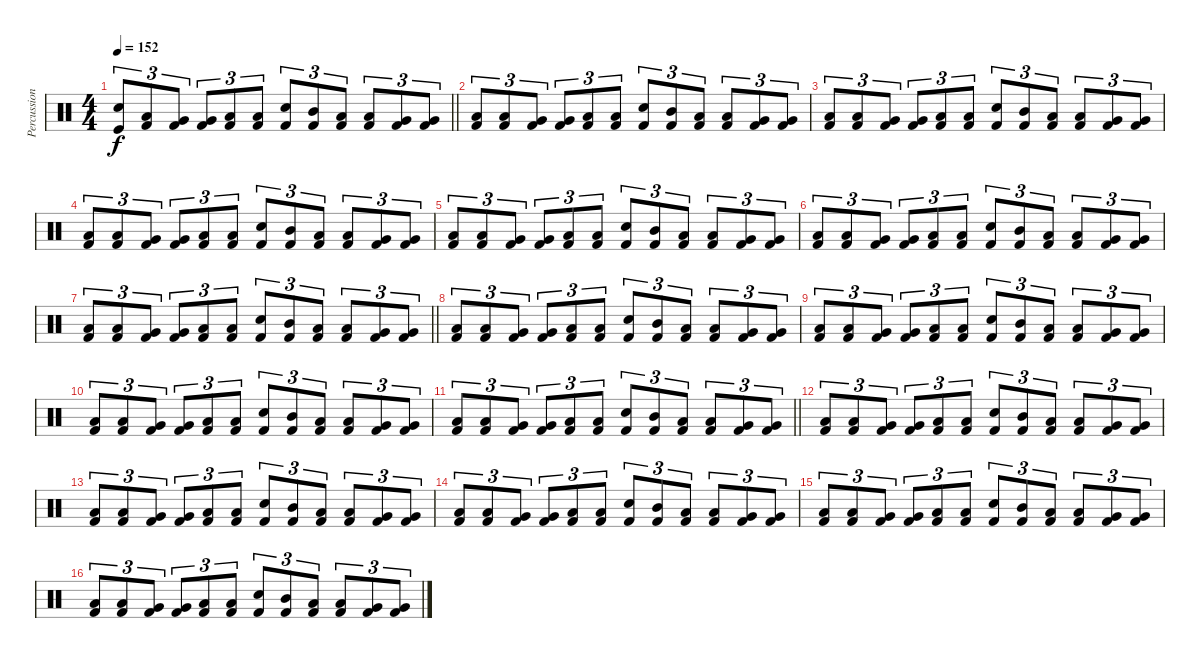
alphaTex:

\track ("Percussion" "Percussion") {instrument percussion}
\staff {score}
\articulation defaults
\ts (4 4)
\tempo 152
\clef neutral
\barLineRight lightlight
\ks c
("Electric Snare (hit)" "Kick (hit)").8{tu (3 2) dy f} ("Kick (hit) 2" "Low Tom (hit)").8{tu (3 2)} ("Kick (hit) 2" "Very Low Tom (hit)").8{tu (3 2)} ("Kick (hit) 2" "Very Low Tom (hit)").8{tu (3 2)} ("Kick (hit) 2" "Low Floor Tom (hit)").8{tu (3 2)} ("Kick (hit) 2" "Low Floor Tom (hit)").8{tu (3 2)} ("Electric Snare (hit)" "Kick (hit) 2").8{tu (3 2)} ("Kick (hit) 2" "Mid Tom (hit)").8{tu (3 2)} ("Kick (hit) 2" "Low Tom (hit)").8{tu (3 2)} ("Kick (hit) 2" "Low Tom (hit)").8{tu (3 2)} ("Kick (hit) 2" "Very Low Tom (hit)").8{tu (3 2)} ("Kick (hit) 2" "Very Low Tom (hit)").8{tu (3 2)} |
\section ("" "")
("Kick (hit) 2" "Low Tom (hit)").8{tu (3 2)} ("Kick (hit) 2" "Low Tom (hit)").8{tu (3 2)} ("Kick (hit) 2" "Very Low Tom (hit)").8{tu (3 2)} ("Kick (hit) 2" "Very Low Tom (hit)").8{tu (3 2)} ("Kick (hit) 2" "Low Floor Tom (hit)").8{tu (3 2)} ("Kick (hit) 2" "Low Floor Tom (hit)").8{tu (3 2)} ("Electric Snare (hit)" "Kick (hit) 2").8{tu (3 2)} ("Kick (hit) 2" "Mid Tom (hit)").8{tu (3 2)} ("Kick (hit) 2" "Low Tom (hit)").8{tu (3 2)} ("Kick (hit) 2" "Low Tom (hit)").8{tu (3 2)} ("Kick (hit) 2" "Very Low Tom (hit)").8{tu (3 2)} ("Kick (hit) 2" "Very Low Tom (hit)").8{tu (3 2)} |
("Kick (hit) 2" "Low Tom (hit)").8{tu (3 2)} ("Kick (hit) 2" "Low Tom (hit)").8{tu (3 2)} ("Kick (hit) 2" "Very Low Tom (hit)").8{tu (3 2)} ("Kick (hit) 2" "Very Low Tom (hit)").8{tu (3 2)} ("Kick (hit) 2" "Low Floor Tom (hit)").8{tu (3 2)} ("Kick (hit) 2" "Low Floor Tom (hit)").8{tu (3 2)} ("Electric Snare (hit)" "Kick (hit) 2").8{tu (3 2)} ("Kick (hit) 2" "Mid Tom (hit)").8{tu (3 2)} ("Kick (hit) 2" "Low Tom (hit)").8{tu (3 2)} ("Kick (hit) 2" "Low Tom (hit)").8{tu (3 2)} ("Kick (hit) 2" "Very Low Tom (hit)").8{tu (3 2)} ("Kick (hit) 2" "Very Low Tom (hit)").8{tu (3 2)} |
("Kick (hit) 2" "Low Tom (hit)").8{tu (3 2)} ("Kick (hit) 2" "Low Tom (hit)").8{tu (3 2)} ("Kick (hit) 2" "Very Low Tom (hit)").8{tu (3 2)} ("Kick (hit) 2" "Very Low Tom (hit)").8{tu (3 2)} ("Kick (hit) 2" "Low Floor Tom (hit)").8{tu (3 2)} ("Kick (hit) 2" "Low Floor Tom (hit)").8{tu (3 2)} ("Electric Snare (hit)" "Kick (hit) 2").8{tu (3 2)} ("Kick (hit) 2" "Mid Tom (hit)").8{tu (3 2)} ("Kick (hit) 2" "Low Tom (hit)").8{tu (3 2)} ("Kick (hit) 2" "Low Tom (hit)").8{tu (3 2)} ("Kick (hit) 2" "Very Low Tom (hit)").8{tu (3 2)} ("Kick (hit) 2" "Very Low Tom (hit)").8{tu (3 2)} |
("Kick (hit) 2" "Low Tom (hit)").8{tu (3 2)} ("Kick (hit) 2" "Low Tom (hit)").8{tu (3 2)} ("Kick (hit) 2" "Very Low Tom (hit)").8{tu (3 2)} ("Kick (hit) 2" "Very Low Tom (hit)").8{tu (3 2)} ("Kick (hit) 2" "Low Floor Tom (hit)").8{tu (3 2)} ("Kick (hit) 2" "Low Floor Tom (hit)").8{tu (3 2)} ("Electric Snare (hit)" "Kick (hit) 2").8{tu (3 2)} ("Kick (hit) 2" "Mid Tom (hit)").8{tu (3 2)} ("Kick (hit) 2" "Low Tom (hit)").8{tu (3 2)} ("Kick (hit) 2" "Low Tom (hit)").8{tu (3 2)} ("Kick (hit) 2" "Very Low Tom (hit)").8{tu (3 2)} ("Kick (hit) 2" "Very Low Tom (hit)").8{tu (3 2)} |
("Kick (hit) 2" "Low Tom (hit)").8{tu (3 2)} ("Kick (hit) 2" "Low Tom (hit)").8{tu (3 2)} ("Kick (hit) 2" "Very Low Tom (hit)").8{tu (3 2)} ("Kick (hit) 2" "Very Low Tom (hit)").8{tu (3 2)} ("Kick (hit) 2" "Low Floor Tom (hit)").8{tu (3 2)} ("Kick (hit) 2" "Low Floor Tom (hit)").8{tu (3 2)} ("Electric Snare (hit)" "Kick (hit) 2").8{tu (3 2)} ("Kick (hit) 2" "Mid Tom (hit)").8{tu (3 2)} ("Kick (hit) 2" "Low Tom (hit)").8{tu (3 2)} ("Kick (hit) 2" "Low Tom (hit)").8{tu (3 2)} ("Kick (hit) 2" "Very Low Tom (hit)").8{tu (3 2)} ("Kick (hit) 2" "Very Low Tom (hit)").8{tu (3 2)} |
\barLineRight lightlight
("Kick (hit) 2" "Low Tom (hit)").8{tu (3 2)} ("Kick (hit) 2" "Low Tom (hit)").8{tu (3 2)} ("Kick (hit) 2" "Very Low Tom (hit)").8{tu (3 2)} ("Kick (hit) 2" "Very Low Tom (hit)").8{tu (3 2)} ("Kick (hit) 2" "Low Floor Tom (hit)").8{tu (3 2)} ("Kick (hit) 2" "Low Floor Tom (hit)").8{tu (3 2)} ("Electric Snare (hit)" "Kick (hit) 2").8{tu (3 2)} ("Kick (hit) 2" "Mid Tom (hit)").8{tu (3 2)} ("Kick (hit) 2" "Low Tom (hit)").8{tu (3 2)} ("Kick (hit) 2" "Low Tom (hit)").8{tu (3 2)} ("Kick (hit) 2" "Very Low Tom (hit)").8{tu (3 2)} ("Kick (hit) 2" "Very Low Tom (hit)").8{tu (3 2)} |
\section ("" "")
("Kick (hit) 2" "Low Tom (hit)").8{tu (3 2)} ("Kick (hit) 2" "Low Tom (hit)").8{tu (3 2)} ("Kick (hit) 2" "Very Low Tom (hit)").8{tu (3 2)} ("Kick (hit) 2" "Very Low Tom (hit)").8{tu (3 2)} ("Kick (hit) 2" "Low Floor Tom (hit)").8{tu (3 2)} ("Kick (hit) 2" "Low Floor Tom (hit)").8{tu (3 2)} ("Electric Snare (hit)" "Kick (hit) 2").8{tu (3 2)} ("Kick (hit) 2" "Mid Tom (hit)").8{tu (3 2)} ("Kick (hit) 2" "Low Tom (hit)").8{tu (3 2)} ("Kick (hit) 2" "Low Tom (hit)").8{tu (3 2)} ("Kick (hit) 2" "Very Low Tom (hit)").8{tu (3 2)} ("Kick (hit) 2" "Very Low Tom (hit)").8{tu (3 2)} |
("Kick (hit) 2" "Low Tom (hit)").8{tu (3 2)} ("Kick (hit) 2" "Low Tom (hit)").8{tu (3 2)} ("Kick (hit) 2" "Very Low Tom (hit)").8{tu (3 2)} ("Kick (hit) 2" "Very Low Tom (hit)").8{tu (3 2)} ("Kick (hit) 2" "Low Floor Tom (hit)").8{tu (3 2)} ("Kick (hit) 2" "Low Floor Tom (hit)").8{tu (3 2)} ("Electric Snare (hit)" "Kick (hit) 2").8{tu (3 2)} ("Kick (hit) 2" "Mid Tom (hit)").8{tu (3 2)} ("Kick (hit) 2" "Low Tom (hit)").8{tu (3 2)} ("Kick (hit) 2" "Low Tom (hit)").8{tu (3 2)} ("Kick (hit) 2" "Very Low Tom (hit)").8{tu (3 2)} ("Kick (hit) 2" "Very Low Tom (hit)").8{tu (3 2)} |
("Kick (hit) 2" "Low Tom (hit)").8{tu (3 2)} ("Kick (hit) 2" "Low Tom (hit)").8{tu (3 2)} ("Kick (hit) 2" "Very Low Tom (hit)").8{tu (3 2)} ("Kick (hit) 2" "Very Low Tom (hit)").8{tu (3 2)} ("Kick (hit) 2" "Low Floor Tom (hit)").8{tu (3 2)} ("Kick (hit) 2" "Low Floor Tom (hit)").8{tu (3 2)} ("Electric Snare (hit)" "Kick (hit) 2").8{tu (3 2)} ("Kick (hit) 2" "Mid Tom (hit)").8{tu (3 2)} ("Kick (hit) 2" "Low Tom (hit)").8{tu (3 2)} ("Kick (hit) 2" "Low Tom (hit)").8{tu (3 2)} ("Kick (hit) 2" "Very Low Tom (hit)").8{tu (3 2)} ("Kick (hit) 2" "Very Low Tom (hit)").8{tu (3 2)} |
\barLineRight lightlight
("Kick (hit) 2" "Low Tom (hit)").8{tu (3 2)} ("Kick (hit) 2" "Low Tom (hit)").8{tu (3 2)} ("Kick (hit) 2" "Very Low Tom (hit)").8{tu (3 2)} ("Kick (hit) 2" "Very Low Tom (hit)").8{tu (3 2)} ("Kick (hit) 2" "Low Floor Tom (hit)").8{tu (3 2)} ("Kick (hit) 2" "Low Floor Tom (hit)").8{tu (3 2)} ("Electric Snare (hit)" "Kick (hit) 2").8{tu (3 2)} ("Kick (hit) 2" "Mid Tom (hit)").8{tu (3 2)} ("Kick (hit) 2" "Low Tom (hit)").8{tu (3 2)} ("Kick (hit) 2" "Low Tom (hit)").8{tu (3 2)} ("Kick (hit) 2" "Very Low Tom (hit)").8{tu (3 2)} ("Kick (hit) 2" "Very Low Tom (hit)").8{tu (3 2)} |
\section ("" "")
("Kick (hit) 2" "Low Tom (hit)").8{tu (3 2)} ("Kick (hit) 2" "Low Tom (hit)").8{tu (3 2)} ("Kick (hit) 2" "Very Low Tom (hit)").8{tu (3 2)} ("Kick (hit) 2" "Very Low Tom (hit)").8{tu (3 2)} ("Kick (hit) 2" "Low Floor Tom (hit)").8{tu (3 2)} ("Kick (hit) 2" "Low Floor Tom (hit)").8{tu (3 2)} ("Electric Snare (hit)" "Kick (hit) 2").8{tu (3 2)} ("Kick (hit) 2" "Mid Tom (hit)").8{tu (3 2)} ("Kick (hit) 2" "Low Tom (hit)").8{tu (3 2)} ("Kick (hit) 2" "Low Tom (hit)").8{tu (3 2)} ("Kick (hit) 2" "Very Low Tom (hit)").8{tu (3 2)} ("Kick (hit) 2" "Very Low Tom (hit)").8{tu (3 2)} |
("Kick (hit) 2" "Low Tom (hit)").8{tu (3 2)} ("Kick (hit) 2" "Low Tom (hit)").8{tu (3 2)} ("Kick (hit) 2" "Very Low Tom (hit)").8{tu (3 2)} ("Kick (hit) 2" "Very Low Tom (hit)").8{tu (3 2)} ("Kick (hit) 2" "Low Floor Tom (hit)").8{tu (3 2)} ("Kick (hit) 2" "Low Floor Tom (hit)").8{tu (3 2)} ("Electric Snare (hit)" "Kick (hit) 2").8{tu (3 2)} ("Kick (hit) 2" "Mid Tom (hit)").8{tu (3 2)} ("Kick (hit) 2" "Low Tom (hit)").8{tu (3 2)} ("Kick (hit) 2" "Low Tom (hit)").8{tu (3 2)} ("Kick (hit) 2" "Very Low Tom (hit)").8{tu (3 2)} ("Kick (hit) 2" "Very Low Tom (hit)").8{tu (3 2)} |
("Kick (hit) 2" "Low Tom (hit)").8{tu (3 2)} ("Kick (hit) 2" "Low Tom (hit)").8{tu (3 2)} ("Kick (hit) 2" "Very Low Tom (hit)").8{tu (3 2)} ("Kick (hit) 2" "Very Low Tom (hit)").8{tu (3 2)} ("Kick (hit) 2" "Low Floor Tom (hit)").8{tu (3 2)} ("Kick (hit) 2" "Low Floor Tom (hit)").8{tu (3 2)} ("Electric Snare (hit)" "Kick (hit) 2").8{tu (3 2)} ("Kick (hit) 2" "Mid Tom (hit)").8{tu (3 2)} ("Kick (hit) 2" "Low Tom (hit)").8{tu (3 2)} ("Kick (hit) 2" "Low Tom (hit)").8{tu (3 2)} ("Kick (hit) 2" "Very Low Tom (hit)").8{tu (3 2)} ("Kick (hit) 2" "Very Low Tom (hit)").8{tu (3 2)} |
("Kick (hit) 2" "Low Tom (hit)").8{tu (3 2)} ("Kick (hit) 2" "Low Tom (hit)").8{tu (3 2)} ("Kick (hit) 2" "Very Low Tom (hit)").8{tu (3 2)} ("Kick (hit) 2" "Very Low Tom (hit)").8{tu (3 2)} ("Kick (hit) 2" "Low Floor Tom (hit)").8{tu (3 2)} ("Kick (hit) 2" "Low Floor Tom (hit)").8{tu (3 2)} ("Electric Snare (hit)" "Kick (hit) 2").8{tu (3 2)} ("Kick (hit) 2" "Mid Tom (hit)").8{tu (3 2)} ("Kick (hit) 2" "Low Tom (hit)").8{tu (3 2)} ("Kick (hit) 2" "Low Tom (hit)").8{tu (3 2)} ("Kick (hit) 2" "Very Low Tom (hit)").8{tu (3 2)} ("Kick (hit) 2" "Very Low Tom (hit)").8{tu (3 2)} |
("Kick (hit) 2" "Low Tom (hit)").8{tu (3 2)} ("Kick (hit) 2" "Low Tom (hit)").8{tu (3 2)} ("Kick (hit) 2" "Very Low Tom (hit)").8{tu (3 2)} ("Kick (hit) 2" "Very Low Tom (hit)").8{tu (3 2)} ("Kick (hit) 2" "Low Floor Tom (hit)").8{tu (3 2)} ("Kick (hit) 2" "Low Floor Tom (hit)").8{tu (3 2)} ("Electric Snare (hit)" "Kick (hit) 2").8{tu (3 2)} ("Kick (hit) 2" "Mid Tom (hit)").8{tu (3 2)} ("Kick (hit) 2" "Low Tom (hit)").8{tu (3 2)} ("Kick (hit) 2" "Low Tom (hit)").8{tu (3 2)} ("Kick (hit) 2" "Very Low Tom (hit)").8{tu (3 2)} ("Kick (hit) 2" "Very Low Tom (hit)").8{tu (3 2)}
